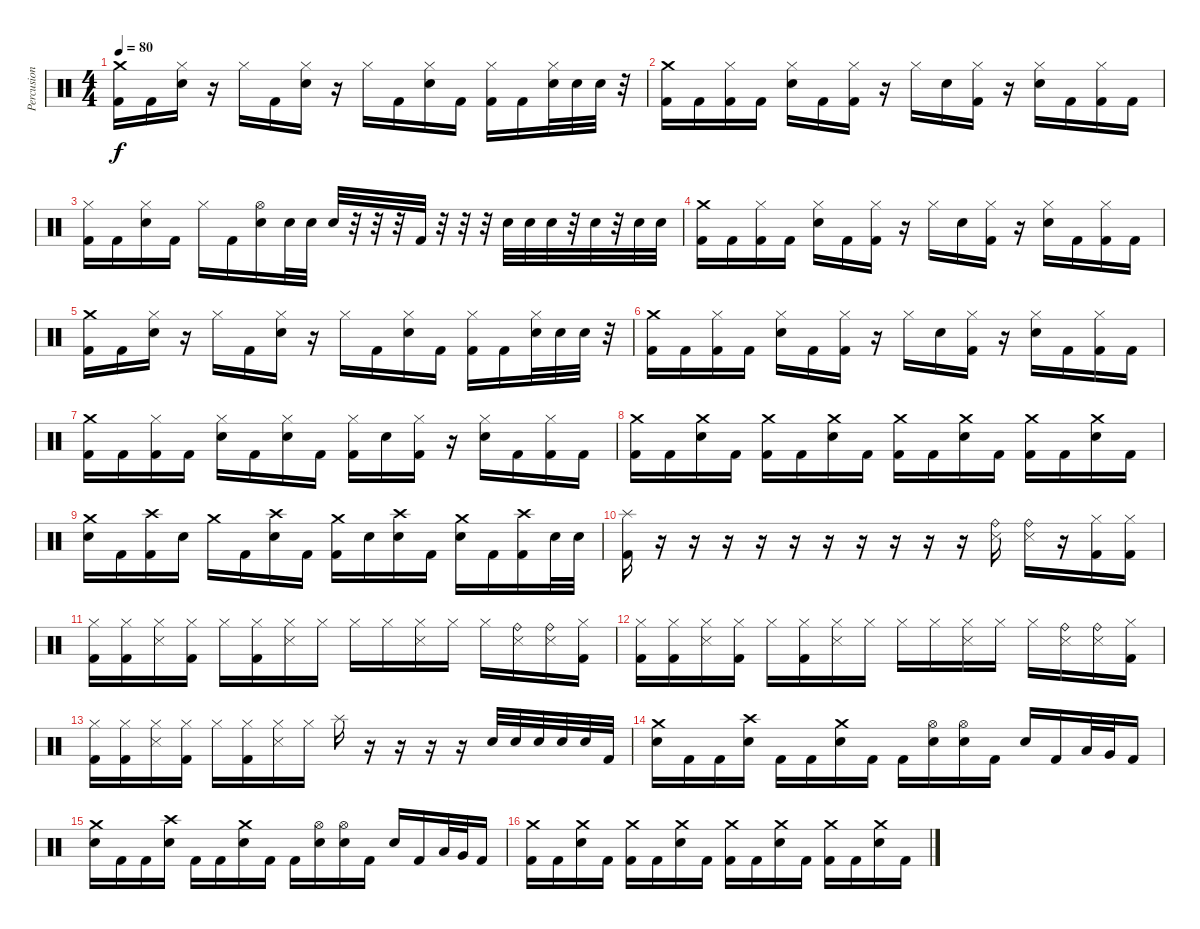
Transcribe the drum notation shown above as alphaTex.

\track ("Percusion" "Percusion") {instrument percussion}
\staff {score}
\articulation defaults
\ts (4 4)
\tempo 80
\clef neutral
\ks c
("Crash medium (hit)" "Kick (hit) 2").16{dy f} "Kick (hit) 2".16 ("Hi-Hat (closed)" "Electric Snare (hit)").16 r.16 "Hi-Hat (closed)".16 "Kick (hit) 2".16 ("Hi-Hat (closed)" "Electric Snare (hit)").16 r.16 "Hi-Hat (closed)".16 "Kick (hit) 2".16 ("Hi-Hat (closed)" "Electric Snare (hit)").16 "Kick (hit) 2".16 ("Hi-Hat (closed)" "Kick (hit) 2").16 "Kick (hit) 2".16 ("Hi-Hat (closed)" "Electric Snare (hit)").32 "Electric Snare (hit)".32 "Electric Snare (hit)".32 r.32 |
("Crash medium (hit)" "Kick (hit) 2").16 "Kick (hit) 2".16 ("Hi-Hat (closed)" "Kick (hit) 2").16 "Kick (hit) 2".16 ("Hi-Hat (closed)" "Electric Snare (hit)").16 "Kick (hit) 2".16 ("Hi-Hat (closed)" "Kick (hit) 2").16 r.16 "Hi-Hat (closed)".16 "Electric Snare (hit)".16 ("Hi-Hat (closed)" "Kick (hit) 2").16 r.16 ("Hi-Hat (closed)" "Electric Snare (hit)").16 "Kick (hit) 2".16 ("Hi-Hat (closed)" "Kick (hit) 2").16 "Kick (hit) 2".16 |
("Hi-Hat (closed)" "Kick (hit) 2").16 "Kick (hit) 2".16 ("Hi-Hat (closed)" "Electric Snare (hit)").16 "Kick (hit) 2".16 "Hi-Hat (closed)".16 "Kick (hit) 2".16 ("Hi-Hat (open)" "Electric Snare (hit)").16 "Electric Snare (hit)".32 "Electric Snare (hit)".32 "Electric Snare (hit)".32 r.32 r.32 r.32 "Kick (hit) 2".32 r.32 r.32 r.32 "Electric Snare (hit)".32 "Electric Snare (hit)".32 "Electric Snare (hit)".32 r.32 "Electric Snare (hit)".32 r.32 "Electric Snare (hit)".32 "Electric Snare (hit)".32 |
("Crash medium (hit)" "Kick (hit) 2").16 "Kick (hit) 2".16 ("Hi-Hat (closed)" "Kick (hit) 2").16 "Kick (hit) 2".16 ("Hi-Hat (closed)" "Electric Snare (hit)").16 "Kick (hit) 2".16 ("Hi-Hat (closed)" "Kick (hit) 2").16 r.16 "Hi-Hat (closed)".16 "Electric Snare (hit)".16 ("Hi-Hat (closed)" "Kick (hit) 2").16 r.16 ("Hi-Hat (closed)" "Electric Snare (hit)").16 "Kick (hit) 2".16 ("Hi-Hat (closed)" "Kick (hit) 2").16 "Kick (hit) 2".16 |
("Crash medium (hit)" "Kick (hit) 2").16 "Kick (hit) 2".16 ("Hi-Hat (closed)" "Electric Snare (hit)").16 r.16 "Hi-Hat (closed)".16 "Kick (hit) 2".16 ("Hi-Hat (closed)" "Electric Snare (hit)").16 r.16 "Hi-Hat (closed)".16 "Kick (hit) 2".16 ("Hi-Hat (closed)" "Electric Snare (hit)").16 "Kick (hit) 2".16 ("Hi-Hat (closed)" "Kick (hit) 2").16 "Kick (hit) 2".16 ("Hi-Hat (closed)" "Electric Snare (hit)").32 "Electric Snare (hit)".32 "Electric Snare (hit)".32 r.32 |
("Crash medium (hit)" "Kick (hit) 2").16 "Kick (hit) 2".16 ("Hi-Hat (closed)" "Kick (hit) 2").16 "Kick (hit) 2".16 ("Hi-Hat (closed)" "Electric Snare (hit)").16 "Kick (hit) 2".16 ("Hi-Hat (closed)" "Kick (hit) 2").16 r.16 "Hi-Hat (closed)".16 "Electric Snare (hit)".16 ("Hi-Hat (closed)" "Kick (hit) 2").16 r.16 ("Hi-Hat (closed)" "Electric Snare (hit)").16 "Kick (hit) 2".16 ("Hi-Hat (closed)" "Kick (hit) 2").16 "Kick (hit) 2".16 |
("Crash medium (hit)" "Kick (hit) 2").16 "Kick (hit) 2".16 ("Hi-Hat (closed)" "Kick (hit) 2").16 "Kick (hit) 2".16 ("Hi-Hat (closed)" "Electric Snare (hit)").16 "Kick (hit) 2".16 ("Hi-Hat (closed)" "Electric Snare (hit)").16 "Kick (hit) 2".16 ("Hi-Hat (closed)" "Kick (hit) 2").16 "Electric Snare (hit)".16 ("Hi-Hat (closed)" "Kick (hit) 2").16 r.16 ("Hi-Hat (closed)" "Electric Snare (hit)").16 "Kick (hit) 2".16 ("Hi-Hat (closed)" "Kick (hit) 2").16 "Kick (hit) 2".16 |
("Crash medium (hit)" "Kick (hit) 2").16 "Kick (hit) 2".16 ("Crash medium (hit)" "Electric Snare (hit)").16 "Kick (hit) 2".16 ("Crash medium (hit)" "Kick (hit) 2").16 "Kick (hit) 2".16 ("Crash medium (hit)" "Electric Snare (hit)").16 "Kick (hit) 2".16 ("Crash medium (hit)" "Kick (hit) 2").16 "Kick (hit) 2".16 ("Crash medium (hit)" "Electric Snare (hit)").16 "Kick (hit) 2".16 ("Crash medium (hit)" "Kick (hit) 2").16 "Kick (hit) 2".16 ("Crash medium (hit)" "Electric Snare (hit)").16 "Kick (hit) 2".16 |
("Crash medium (hit)" "Electric Snare (hit)").16 "Kick (hit) 2".16 ("Crash high (hit)" "Kick (hit) 2").16 "Electric Snare (hit)".16 "Crash medium (hit)".16 "Kick (hit) 2".16 ("Crash high (hit)" "Electric Snare (hit)").16 "Kick (hit) 2".16 ("Crash medium (hit)" "Kick (hit) 2").16 "Electric Snare (hit)".16 ("Crash high (hit)" "Electric Snare (hit)").16 "Kick (hit) 2".16 ("Crash medium (hit)" "Electric Snare (hit)").16 "Kick (hit) 2".16 ("Crash high (hit)" "Kick (hit) 2").16 "Electric Snare (hit)".32 "Electric Snare (hit)".32 |
("Splash (hit)" "Kick (hit) 2").16 r.16 r.16 r.16 r.16 r.16 r.16 r.16 r.16 r.16 r.16 ("Ride (bell)" "Snare (side stick) 3").16 ("Snare (side stick) 3" "Ride (bell)").16 r.16 ("Hi-Hat (closed)" "Kick (hit) 2").16 ("Hi-Hat (closed)" "Kick (hit) 2").16 |
("Hi-Hat (closed)" "Kick (hit) 2").16 ("Hi-Hat (closed)" "Kick (hit) 2").16 ("Hi-Hat (closed)" "Snare (side stick) 3").16 ("Hi-Hat (closed)" "Kick (hit) 2").16 "Hi-Hat (closed)".16 ("Hi-Hat (closed)" "Kick (hit) 2").16 ("Hi-Hat (closed)" "Snare (side stick) 3").16 "Hi-Hat (closed)".16 "Hi-Hat (closed)".16 "Hi-Hat (closed)".16 ("Hi-Hat (closed)" "Snare (side stick) 3").16 "Hi-Hat (closed)".16 "Hi-Hat (closed)".16 ("Ride (bell)" "Snare (side stick) 3").16 ("Ride (bell)" "Snare (side stick) 3").16 ("Hi-Hat (closed)" "Kick (hit) 2").16 |
("Hi-Hat (closed)" "Kick (hit) 2").16 ("Hi-Hat (closed)" "Kick (hit) 2").16 ("Hi-Hat (closed)" "Snare (side stick) 3").16 ("Hi-Hat (closed)" "Kick (hit) 2").16 "Hi-Hat (closed)".16 ("Hi-Hat (closed)" "Kick (hit) 2").16 ("Hi-Hat (closed)" "Snare (side stick) 3").16 "Hi-Hat (closed)".16 "Hi-Hat (closed)".16 "Hi-Hat (closed)".16 ("Hi-Hat (closed)" "Snare (side stick) 3").16 "Hi-Hat (closed)".16 "Hi-Hat (closed)".16 ("Ride (bell)" "Snare (side stick) 3").16 ("Ride (bell)" "Snare (side stick) 3").16 ("Hi-Hat (closed)" "Kick (hit) 2").16 |
("Hi-Hat (closed)" "Kick (hit) 2").16 ("Hi-Hat (closed)" "Kick (hit) 2").16 ("Hi-Hat (closed)" "Snare (side stick) 3").16 ("Hi-Hat (closed)" "Kick (hit) 2").16 "Hi-Hat (closed)".16 ("Hi-Hat (closed)" "Kick (hit) 2").16 ("Hi-Hat (closed)" "Snare (side stick) 3").16 "Hi-Hat (closed)".16 "Splash (hit)".16 r.16 r.16 r.16 r.16 "Electric Snare (hit)".32 "Electric Snare (hit)".32 "Electric Snare (hit)".32 "Electric Snare (hit)".32 "Electric Snare (hit)".32 "Kick (hit) 2".32 |
("Crash medium (hit)" "Electric Snare (hit)").16 "Kick (hit) 2".16 "Kick (hit) 2".16 ("Crash high (hit)" "Electric Snare (hit)").16 "Kick (hit) 2".16 "Kick (hit) 2".16 ("Crash medium (hit)" "Electric Snare (hit)").16 "Kick (hit) 2".16 "Kick (hit) 2".16 ("Hi-Hat (open)" "Electric Snare (hit)").16 ("Hi-Hat (open)" "Electric Snare (hit)").16 "Kick (hit) 2".16 "Electric Snare (hit)".16 "Kick (hit) 2".16 "Low Floor Tom (hit)".32 "Very Low Tom (hit)".32 "Kick (hit) 2".16 |
("Crash medium (hit)" "Electric Snare (hit)").16 "Kick (hit) 2".16 "Kick (hit) 2".16 ("Crash high (hit)" "Electric Snare (hit)").16 "Kick (hit) 2".16 "Kick (hit) 2".16 ("Crash medium (hit)" "Electric Snare (hit)").16 "Kick (hit) 2".16 "Kick (hit) 2".16 ("Hi-Hat (open)" "Electric Snare (hit)").16 ("Hi-Hat (open)" "Electric Snare (hit)").16 "Kick (hit) 2".16 "Electric Snare (hit)".16 "Kick (hit) 2".16 "Low Floor Tom (hit)".32 "Very Low Tom (hit)".32 "Kick (hit) 2".16 |
("Crash medium (hit)" "Kick (hit) 2").16 "Kick (hit) 2".16 ("Crash medium (hit)" "Electric Snare (hit)").16 "Kick (hit) 2".16 ("Crash medium (hit)" "Kick (hit) 2").16 "Kick (hit) 2".16 ("Crash medium (hit)" "Electric Snare (hit)").16 "Kick (hit) 2".16 ("Crash medium (hit)" "Kick (hit) 2").16 "Kick (hit) 2".16 ("Crash medium (hit)" "Electric Snare (hit)").16 "Kick (hit) 2".16 ("Crash medium (hit)" "Kick (hit) 2").16 "Kick (hit) 2".16 ("Crash medium (hit)" "Electric Snare (hit)").16 "Kick (hit) 2".16
